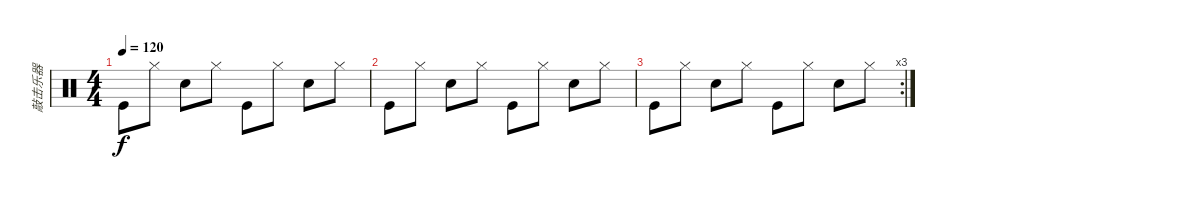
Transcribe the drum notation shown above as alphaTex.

\track ("敲击乐器" "敲击乐器") {instrument percussion}
\staff {score}
\articulation defaults
\ts (4 4)
\tempo 120
\clef neutral
\ks c "Kick (hit)".8{dy f} "Hi-Hat (closed)".8 "Snare (hit) 2".8 "Hi-Hat (closed)".8 "Kick (hit)".8 "Hi-Hat (closed)".8 "Snare (hit) 2".8 "Hi-Hat (closed)".8
|
"Kick (hit)".8 "Hi-Hat (closed)".8 "Snare (hit) 2".8 "Hi-Hat (closed)".8 "Kick (hit)".8 "Hi-Hat (closed)".8 "Snare (hit) 2".8 "Hi-Hat (closed)".8 |
\rc 3 "Kick (hit)".8 "Hi-Hat (closed)".8 "Snare (hit) 2".8 "Hi-Hat (closed)".8 "Kick (hit)".8 "Hi-Hat (closed)".8 "Snare (hit) 2".8 "Hi-Hat (closed)".8
